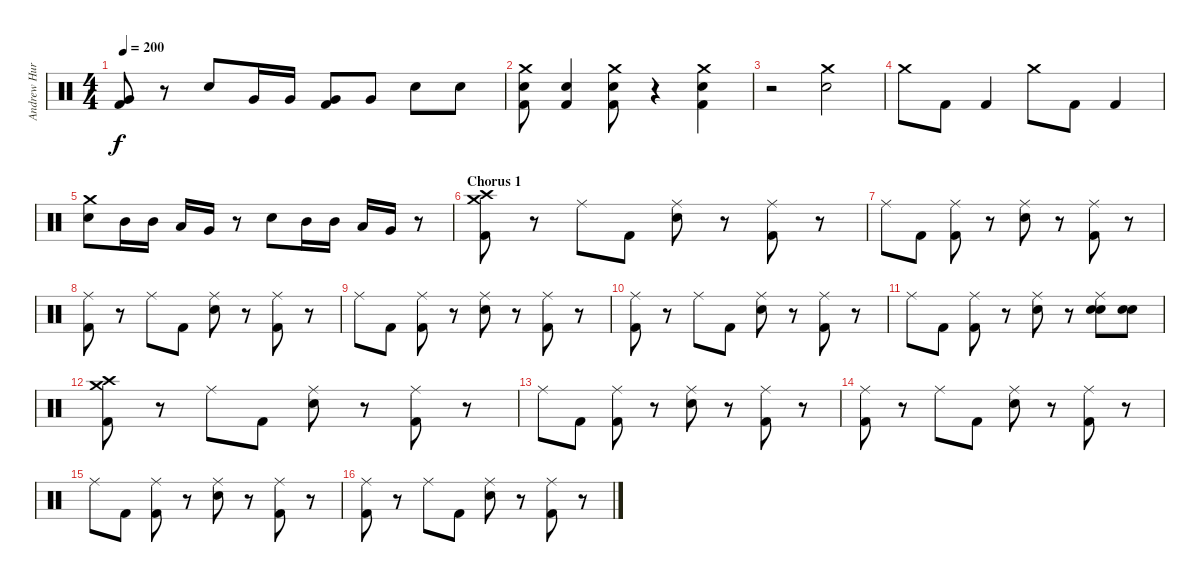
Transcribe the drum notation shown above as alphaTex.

\track ("Andrew Hurley (Drums)" "Andrew Hur") {instrument percussion}
\staff {score}
\articulation defaults
\ts (4 4)
\tempo 200
\clef neutral
\ks c
("Very Low Tom (hit)" "Kick (hit) 2").8{dy f} r.8 "Electric Snare (hit)".8 "Very Low Tom (hit)".16 "Very Low Tom (hit)".16 ("Very Low Tom (hit)" "Kick (hit) 2").8 "Very Low Tom (hit)".8 "Electric Snare (hit)".8 "Electric Snare (hit)".8 |
("Crash medium (hit)" "Electric Snare (hit)" "Kick (hit) 2").8 ("Electric Snare (hit)" "Kick (hit) 2").4 ("Crash medium (hit)" "Electric Snare (hit)" "Kick (hit) 2").8 r.4 ("Crash medium (hit)" "Electric Snare (hit)" "Kick (hit) 2").4 |
r.2 ("Crash medium (hit)" "Electric Snare (hit)").2 |
"Crash medium (hit)".8 "Kick (hit) 2".8 "Kick (hit) 2".4 "Crash medium (hit)".8 "Kick (hit) 2".8 "Kick (hit) 2".4 |
("Crash medium (hit)" "Electric Snare (hit)").8 "Mid Tom (hit)".16 "Mid Tom (hit)".16 "Low Tom (hit)".16 "Very Low Tom (hit)".16 r.8 "Electric Snare (hit)".8 "Mid Tom (hit)".16 "Mid Tom (hit)".16 "Low Tom (hit)".16 "Very Low Tom (hit)".16 r.8 |
\section ("" "Chorus 1")
("Crash medium (hit)" "Crash high (hit)" "Kick (hit) 2").8 r.8 "Ride (middle)".8 "Kick (hit) 2".8 ("Ride (middle)" "Electric Snare (hit)").8 r.8 ("Ride (middle)" "Kick (hit) 2").8 r.8 |
"Ride (middle)".8 "Kick (hit) 2".8 ("Ride (middle)" "Kick (hit) 2").8 r.8 ("Ride (middle)" "Electric Snare (hit)").8 r.8 ("Ride (middle)" "Kick (hit) 2").8 r.8 |
("Ride (middle)" "Kick (hit) 2").8 r.8 "Ride (middle)".8 "Kick (hit) 2".8 ("Ride (middle)" "Electric Snare (hit)").8 r.8 ("Ride (middle)" "Kick (hit) 2").8 r.8 |
"Ride (middle)".8 "Kick (hit) 2".8 ("Ride (middle)" "Kick (hit) 2").8 r.8 ("Ride (middle)" "Electric Snare (hit)").8 r.8 ("Ride (middle)" "Kick (hit) 2").8 r.8 |
("Ride (middle)" "Kick (hit) 2").8 r.8 "Ride (middle)".8 "Kick (hit) 2".8 ("Ride (middle)" "Electric Snare (hit)").8 r.8 ("Ride (middle)" "Kick (hit) 2").8 r.8 |
"Ride (middle)".8 "Kick (hit) 2".8 ("Ride (middle)" "Kick (hit) 2").8 r.8 ("Ride (middle)" "Electric Snare (hit)").8 r.8 ("Ride (middle)" "Electric Snare (hit)" "Snare (hit) 2").8 ("Electric Snare (hit)" "Snare (hit) 2").8 |
("Crash medium (hit)" "Crash high (hit)" "Kick (hit) 2").8 r.8 "Ride (middle)".8 "Kick (hit) 2".8 ("Ride (middle)" "Electric Snare (hit)").8 r.8 ("Ride (middle)" "Kick (hit) 2").8 r.8 |
"Ride (middle)".8 "Kick (hit) 2".8 ("Ride (middle)" "Kick (hit) 2").8 r.8 ("Ride (middle)" "Electric Snare (hit)").8 r.8 ("Ride (middle)" "Kick (hit) 2").8 r.8 |
("Ride (middle)" "Kick (hit) 2").8 r.8 "Ride (middle)".8 "Kick (hit) 2".8 ("Ride (middle)" "Electric Snare (hit)").8 r.8 ("Ride (middle)" "Kick (hit) 2").8 r.8 |
"Ride (middle)".8 "Kick (hit) 2".8 ("Ride (middle)" "Kick (hit) 2").8 r.8 ("Ride (middle)" "Electric Snare (hit)").8 r.8 ("Ride (middle)" "Kick (hit) 2").8 r.8 |
("Ride (middle)" "Kick (hit) 2").8 r.8 "Ride (middle)".8 "Kick (hit) 2".8 ("Ride (middle)" "Electric Snare (hit)").8 r.8 ("Ride (middle)" "Kick (hit) 2").8 r.8
